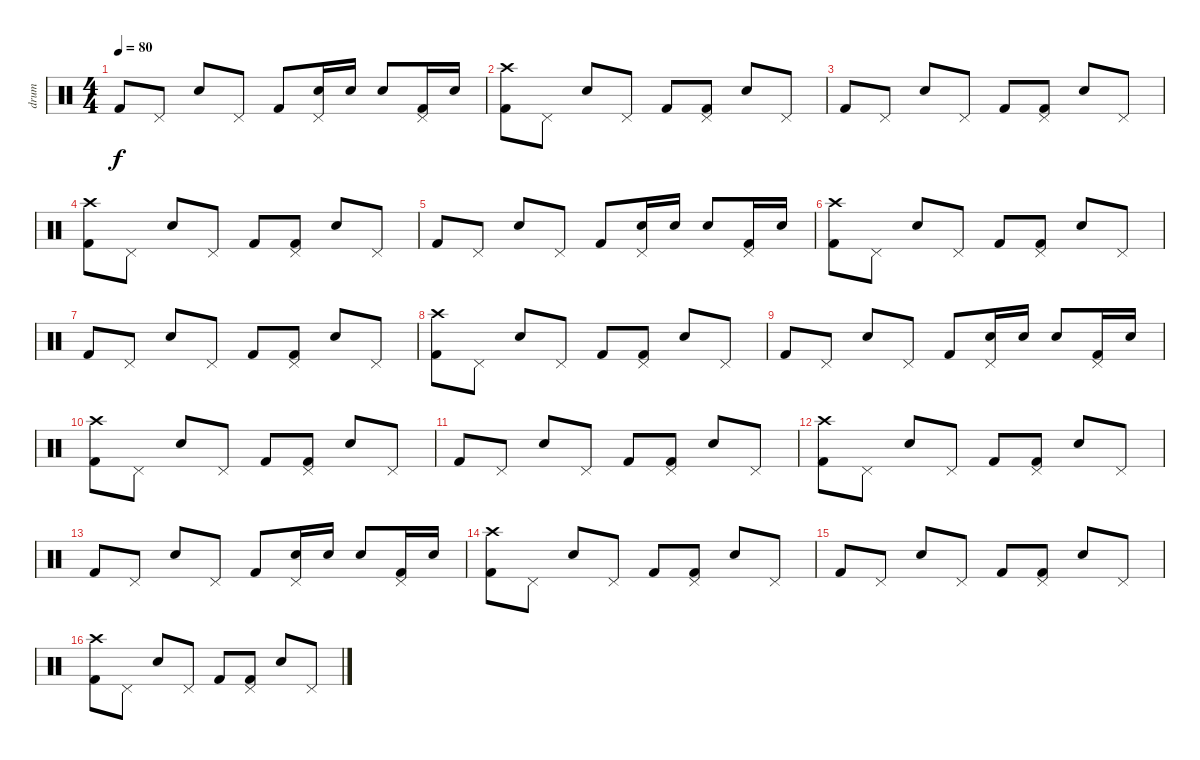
\track ("drum" "drum") {instrument percussion}
\staff {score}
\articulation defaults
\ts (4 4)
\tempo 80
\clef neutral
\ks c "Kick (hit) 2".8{dy f} "Pedal Hi-Hat (hit)".8 "Snare (hit) 2".8 "Pedal Hi-Hat (hit)".8 "Kick (hit) 2".8
("Pedal Hi-Hat (hit)" "Snare (hit) 2").16 "Snare (hit) 2".16 "Snare (hit) 2".8 ("Pedal Hi-Hat (hit)" "Kick (hit) 2").16 "Snare (hit) 2".16 |
("Crash high (hit)" "Kick (hit) 2").8 "Pedal Hi-Hat (hit)".8 "Snare (hit) 2".8 "Pedal Hi-Hat (hit)".8 "Kick (hit) 2".8 ("Pedal Hi-Hat (hit)" "Kick (hit) 2").8 "Snare (hit) 2".8 "Pedal Hi-Hat (hit)".8 |
"Kick (hit) 2".8 "Pedal Hi-Hat (hit)".8 "Snare (hit) 2".8 "Pedal Hi-Hat (hit)".8 "Kick (hit) 2".8 ("Pedal Hi-Hat (hit)" "Kick (hit) 2").8 "Snare (hit) 2".8 "Pedal Hi-Hat (hit)".8 |
("Crash high (hit)" "Kick (hit) 2").8 "Pedal Hi-Hat (hit)".8 "Snare (hit) 2".8 "Pedal Hi-Hat (hit)".8 "Kick (hit) 2".8 ("Pedal Hi-Hat (hit)" "Kick (hit) 2").8 "Snare (hit) 2".8 "Pedal Hi-Hat (hit)".8 |
"Kick (hit) 2".8 "Pedal Hi-Hat (hit)".8 "Snare (hit) 2".8 "Pedal Hi-Hat (hit)".8 "Kick (hit) 2".8 ("Pedal Hi-Hat (hit)" "Snare (hit) 2").16 "Snare (hit) 2".16 "Snare (hit) 2".8 ("Pedal Hi-Hat (hit)" "Kick (hit) 2").16 "Snare (hit) 2".16 |
("Crash high (hit)" "Kick (hit) 2").8 "Pedal Hi-Hat (hit)".8 "Snare (hit) 2".8 "Pedal Hi-Hat (hit)".8 "Kick (hit) 2".8 ("Pedal Hi-Hat (hit)" "Kick (hit) 2").8 "Snare (hit) 2".8 "Pedal Hi-Hat (hit)".8 |
"Kick (hit) 2".8 "Pedal Hi-Hat (hit)".8 "Snare (hit) 2".8 "Pedal Hi-Hat (hit)".8 "Kick (hit) 2".8 ("Pedal Hi-Hat (hit)" "Kick (hit) 2").8 "Snare (hit) 2".8 "Pedal Hi-Hat (hit)".8 |
("Crash high (hit)" "Kick (hit) 2").8 "Pedal Hi-Hat (hit)".8 "Snare (hit) 2".8 "Pedal Hi-Hat (hit)".8 "Kick (hit) 2".8 ("Pedal Hi-Hat (hit)" "Kick (hit) 2").8 "Snare (hit) 2".8 "Pedal Hi-Hat (hit)".8 |
"Kick (hit) 2".8 "Pedal Hi-Hat (hit)".8 "Snare (hit) 2".8 "Pedal Hi-Hat (hit)".8 "Kick (hit) 2".8 ("Pedal Hi-Hat (hit)" "Snare (hit) 2").16 "Snare (hit) 2".16 "Snare (hit) 2".8 ("Pedal Hi-Hat (hit)" "Kick (hit) 2").16 "Snare (hit) 2".16 |
("Crash high (hit)" "Kick (hit) 2").8 "Pedal Hi-Hat (hit)".8 "Snare (hit) 2".8 "Pedal Hi-Hat (hit)".8 "Kick (hit) 2".8 ("Pedal Hi-Hat (hit)" "Kick (hit) 2").8 "Snare (hit) 2".8 "Pedal Hi-Hat (hit)".8 |
"Kick (hit) 2".8 "Pedal Hi-Hat (hit)".8 "Snare (hit) 2".8 "Pedal Hi-Hat (hit)".8 "Kick (hit) 2".8 ("Pedal Hi-Hat (hit)" "Kick (hit) 2").8 "Snare (hit) 2".8 "Pedal Hi-Hat (hit)".8 |
("Crash high (hit)" "Kick (hit) 2").8 "Pedal Hi-Hat (hit)".8 "Snare (hit) 2".8 "Pedal Hi-Hat (hit)".8 "Kick (hit) 2".8 ("Pedal Hi-Hat (hit)" "Kick (hit) 2").8 "Snare (hit) 2".8 "Pedal Hi-Hat (hit)".8 |
"Kick (hit) 2".8 "Pedal Hi-Hat (hit)".8 "Snare (hit) 2".8 "Pedal Hi-Hat (hit)".8 "Kick (hit) 2".8 ("Pedal Hi-Hat (hit)" "Snare (hit) 2").16 "Snare (hit) 2".16 "Snare (hit) 2".8 ("Pedal Hi-Hat (hit)" "Kick (hit) 2").16 "Snare (hit) 2".16 |
("Crash high (hit)" "Kick (hit) 2").8 "Pedal Hi-Hat (hit)".8 "Snare (hit) 2".8 "Pedal Hi-Hat (hit)".8 "Kick (hit) 2".8 ("Pedal Hi-Hat (hit)" "Kick (hit) 2").8 "Snare (hit) 2".8 "Pedal Hi-Hat (hit)".8 |
"Kick (hit) 2".8 "Pedal Hi-Hat (hit)".8 "Snare (hit) 2".8 "Pedal Hi-Hat (hit)".8 "Kick (hit) 2".8 ("Pedal Hi-Hat (hit)" "Kick (hit) 2").8 "Snare (hit) 2".8 "Pedal Hi-Hat (hit)".8 |
("Crash high (hit)" "Kick (hit) 2").8 "Pedal Hi-Hat (hit)".8 "Snare (hit) 2".8 "Pedal Hi-Hat (hit)".8 "Kick (hit) 2".8 ("Pedal Hi-Hat (hit)" "Kick (hit) 2").8 "Snare (hit) 2".8 "Pedal Hi-Hat (hit)".8
